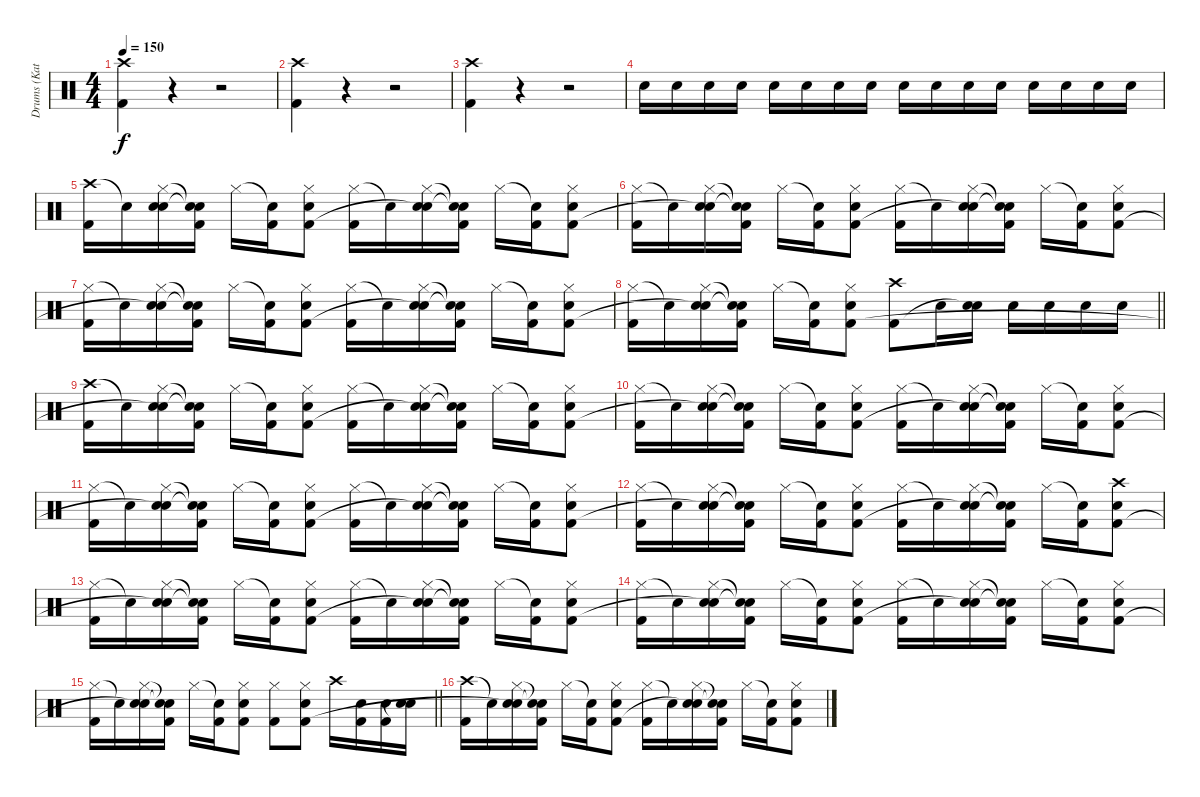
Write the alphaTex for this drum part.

\track ("Drums (Katsuji)" "Drums (Kat") {instrument percussion}
\staff {score}
\articulation defaults
\ts (4 4)
\tempo 150
\clef neutral
\ks c
("Crash high (hit)" "Kick (hit) 2").4{dy f} r.4 r.2 |
("Crash high (hit)" "Kick (hit) 2").4 r.4 r.2 |
("Crash high (hit)" "Kick (hit) 2").4 r.4 r.2 |
"Snare (hit) 2".16 "Snare (hit) 2".16 "Snare (hit) 2".16 "Snare (hit) 2".16 "Snare (hit) 2".16 "Snare (hit) 2".16 "Snare (hit) 2".16 "Snare (hit) 2".16 "Snare (hit) 2".16 "Snare (hit) 2".16 "Snare (hit) 2".16 "Snare (hit) 2".16 "Snare (hit) 2".16 "Snare (hit) 2".16 "Snare (hit) 2".16 "Snare (hit) 2".16 |
("Crash high (hit)" "Kick (hit) 2").16 "Snare (hit)"{t}.16 ("Hi-Hat (closed)" "Snare (hit) 2" "Snare (hit)").16 ("Snare (hit)"{t} "Snare (hit)"{t} "Kick (hit) 2").16 "Hi-Hat (closed)".16 ("Snare (hit)"{t} "Kick (hit) 2").16 ("Hi-Hat (closed)" "Snare (hit) 2" "Kick (hit) 2").8 ("Hi-Hat (closed)" "Kick (hit) 2").16 "Snare (hit)"{t}.16 ("Hi-Hat (closed)" "Snare (hit) 2" "Snare (hit)"{t}).16 ("Snare (hit)"{t} "Snare (hit)"{t} "Kick (hit) 2").16 "Hi-Hat (closed)".16 ("Snare (hit)"{t} "Kick (hit) 2").16 ("Hi-Hat (closed)" "Snare (hit) 2" "Kick (hit) 2").8 |
("Hi-Hat (closed)" "Kick (hit) 2").16 "Snare (hit)"{t}.16 ("Hi-Hat (closed)" "Snare (hit) 2" "Snare (hit)"{t}).16 ("Snare (hit)"{t} "Snare (hit)"{t} "Kick (hit) 2").16 "Hi-Hat (closed)".16 ("Snare (hit)"{t} "Kick (hit) 2").16 ("Hi-Hat (closed)" "Snare (hit) 2" "Kick (hit) 2").8 ("Hi-Hat (closed)" "Kick (hit) 2").16 "Snare (hit)"{t}.16 ("Hi-Hat (closed)" "Snare (hit) 2" "Snare (hit)"{t}).16 ("Snare (hit)"{t} "Snare (hit)"{t} "Kick (hit) 2").16 "Hi-Hat (closed)".16 ("Snare (hit)"{t} "Kick (hit) 2").16 ("Hi-Hat (closed)" "Snare (hit) 2" "Kick (hit) 2").8 |
("Hi-Hat (closed)" "Kick (hit) 2").16 "Snare (hit)"{t}.16 ("Hi-Hat (closed)" "Snare (hit) 2" "Snare (hit)"{t}).16 ("Snare (hit)"{t} "Snare (hit)"{t} "Kick (hit) 2").16 "Hi-Hat (closed)".16 ("Snare (hit)"{t} "Kick (hit) 2").16 ("Hi-Hat (closed)" "Snare (hit) 2" "Kick (hit) 2").8 ("Hi-Hat (closed)" "Kick (hit) 2").16 "Snare (hit)"{t}.16 ("Hi-Hat (closed)" "Snare (hit) 2" "Snare (hit)"{t}).16 ("Snare (hit)"{t} "Snare (hit) 2"{t} "Kick (hit) 2").16 "Hi-Hat (closed)".16 ("Snare (hit)"{t} "Kick (hit) 2").16 ("Hi-Hat (closed)" "Snare (hit) 2" "Kick (hit) 2").8 |
\barLineRight lightlight
("Hi-Hat (closed)" "Kick (hit) 2").16 "Snare (hit)"{t}.16 ("Hi-Hat (closed)" "Snare (hit) 2" "Snare (hit)"{t}).16 ("Snare (hit)"{t} "Snare (hit)"{t} "Kick (hit) 2").16 "Hi-Hat (closed)".16 ("Snare (hit)"{t} "Kick (hit) 2").16 ("Hi-Hat (closed)" "Snare (hit) 2" "Kick (hit) 2").8 ("Crash high (hit)" "Kick (hit) 2").8 "Snare (hit) 2".16 ("Snare (hit) 2" "Snare (hit)"{t}).16 "Snare (hit) 2".16 "Snare (hit) 2".16 "Snare (hit) 2".16 "Snare (hit) 2".16 |
("Crash high (hit)" "Kick (hit) 2").16 "Snare (hit)"{t}.16 ("Hi-Hat (closed)" "Snare (hit) 2" "Snare (hit)"{t}).16 ("Snare (hit)"{t} "Snare (hit)"{t} "Kick (hit) 2").16 "Hi-Hat (closed)".16 ("Snare (hit)"{t} "Kick (hit) 2").16 ("Hi-Hat (closed)" "Snare (hit) 2" "Kick (hit) 2").8 ("Hi-Hat (closed)" "Kick (hit) 2").16 "Snare (hit)"{t}.16 ("Hi-Hat (closed)" "Snare (hit) 2" "Snare (hit)"{t}).16 ("Snare (hit)"{t} "Snare (hit)"{t} "Kick (hit) 2").16 "Hi-Hat (closed)".16 ("Snare (hit)"{t} "Kick (hit) 2").16 ("Hi-Hat (closed)" "Snare (hit) 2" "Kick (hit) 2").8 |
("Hi-Hat (closed)" "Kick (hit) 2").16 "Snare (hit)"{t}.16 ("Hi-Hat (closed)" "Snare (hit) 2" "Snare (hit)"{t}).16 ("Snare (hit)"{t} "Snare (hit)"{t} "Kick (hit) 2").16 "Hi-Hat (closed)".16 ("Snare (hit)"{t} "Kick (hit) 2").16 ("Hi-Hat (closed)" "Snare (hit) 2" "Kick (hit) 2").8 ("Hi-Hat (closed)" "Kick (hit) 2").16 "Snare (hit)"{t}.16 ("Hi-Hat (closed)" "Snare (hit) 2" "Snare (hit)"{t}).16 ("Snare (hit)"{t} "Snare (hit)"{t} "Kick (hit) 2").16 "Hi-Hat (closed)".16 ("Snare (hit)"{t} "Kick (hit) 2").16 ("Hi-Hat (closed)" "Snare (hit) 2" "Kick (hit) 2").8 |
("Hi-Hat (closed)" "Kick (hit) 2").16 "Snare (hit)"{t}.16 ("Hi-Hat (closed)" "Snare (hit) 2" "Snare (hit)"{t}).16 ("Snare (hit)"{t} "Snare (hit)"{t} "Kick (hit) 2").16 "Hi-Hat (closed)".16 ("Snare (hit)"{t} "Kick (hit) 2").16 ("Hi-Hat (closed)" "Snare (hit) 2" "Kick (hit) 2").8 ("Hi-Hat (closed)" "Kick (hit) 2").16 "Snare (hit)"{t}.16 ("Hi-Hat (closed)" "Snare (hit) 2" "Snare (hit)"{t}).16 ("Snare (hit)"{t} "Snare (hit)"{t} "Kick (hit) 2").16 "Hi-Hat (closed)".16 ("Snare (hit)"{t} "Kick (hit) 2").16 ("Hi-Hat (closed)" "Snare (hit) 2" "Kick (hit) 2").8 |
("Hi-Hat (closed)" "Kick (hit) 2").16 "Snare (hit)"{t}.16 ("Hi-Hat (closed)" "Snare (hit) 2" "Snare (hit)"{t}).16 ("Snare (hit)"{t} "Snare (hit)"{t} "Kick (hit) 2").16 "Hi-Hat (closed)".16 ("Snare (hit)"{t} "Kick (hit) 2").16 ("Hi-Hat (closed)" "Snare (hit) 2" "Kick (hit) 2").8 ("Hi-Hat (closed)" "Kick (hit) 2").16 "Snare (hit)"{t}.16 ("Hi-Hat (closed)" "Snare (hit) 2" "Snare (hit)"{t}).16 ("Snare (hit)"{t} "Snare (hit)"{t} "Kick (hit) 2").16 "Hi-Hat (closed)".16 ("Snare (hit)"{t} "Kick (hit) 2").16 ("Crash high (hit)" "Snare (hit) 2" "Kick (hit) 2").8 |
("Hi-Hat (closed)" "Kick (hit) 2").16 "Snare (hit)"{t}.16 ("Hi-Hat (closed)" "Snare (hit) 2" "Snare (hit)"{t}).16 ("Snare (hit)"{t} "Snare (hit)"{t} "Kick (hit) 2").16 "Hi-Hat (closed)".16 ("Snare (hit)"{t} "Kick (hit) 2").16 ("Hi-Hat (closed)" "Snare (hit) 2" "Kick (hit) 2").8 ("Hi-Hat (closed)" "Kick (hit) 2").16 "Snare (hit)"{t}.16 ("Hi-Hat (closed)" "Snare (hit) 2" "Snare (hit)"{t}).16 ("Snare (hit)"{t} "Snare (hit)"{t} "Kick (hit) 2").16 "Hi-Hat (closed)".16 ("Snare (hit)"{t} "Kick (hit) 2").16 ("Hi-Hat (closed)" "Snare (hit) 2" "Kick (hit) 2").8 |
("Hi-Hat (closed)" "Kick (hit) 2").16 "Snare (hit)"{t}.16 ("Hi-Hat (closed)" "Snare (hit) 2" "Snare (hit)"{t}).16 ("Snare (hit)"{t} "Snare (hit)"{t} "Kick (hit) 2").16 "Hi-Hat (closed)".16 ("Snare (hit)"{t} "Kick (hit) 2").16 ("Hi-Hat (closed)" "Snare (hit) 2" "Kick (hit) 2").8 ("Hi-Hat (closed)" "Kick (hit) 2").16 "Snare (hit)"{t}.16 ("Hi-Hat (closed)" "Snare (hit) 2" "Snare (hit)"{t}).16 ("Snare (hit)"{t} "Snare (hit)"{t} "Kick (hit) 2").16 "Hi-Hat (closed)".16 ("Snare (hit)"{t} "Kick (hit) 2").16 ("Hi-Hat (closed)" "Snare (hit) 2" "Kick (hit) 2").8 |
\barLineRight lightlight
("Hi-Hat (closed)" "Kick (hit) 2").16 "Snare (hit)"{t}.16 ("Hi-Hat (closed)" "Snare (hit) 2" "Snare (hit)"{t}).16 ("Snare (hit)"{t} "Snare (hit)"{t} "Kick (hit) 2").16 "Hi-Hat (closed)".16 ("Snare (hit)"{t} "Kick (hit) 2").16 ("Hi-Hat (closed)" "Snare (hit) 2" "Kick (hit) 2").8 ("Hi-Hat (closed)" "Kick (hit) 2").8 ("Hi-Hat (closed)" "Snare (hit) 2" "Kick (hit) 2").8 "Crash high (hit)".16 ("Snare (hit) 2" "Kick (hit) 2").16 ("Snare (hit) 2" "Kick (hit) 2").16 ("Snare (hit) 2" "Snare (hit)"{t}).16 |
("Crash high (hit)" "Kick (hit) 2").16 "Snare (hit)"{t}.16 ("Hi-Hat (closed)" "Snare (hit) 2" "Snare (hit)"{t}).16 ("Snare (hit)"{t} "Snare (hit)"{t} "Kick (hit) 2").16 "Hi-Hat (closed)".16 ("Snare (hit)"{t} "Kick (hit) 2").16 ("Hi-Hat (closed)" "Snare (hit) 2" "Kick (hit) 2").8 ("Hi-Hat (closed)" "Kick (hit) 2").16 "Snare (hit)"{t}.16 ("Hi-Hat (closed)" "Snare (hit) 2" "Snare (hit)"{t}).16 ("Snare (hit)"{t} "Snare (hit)"{t} "Kick (hit) 2").16 "Hi-Hat (closed)".16 ("Snare (hit)"{t} "Kick (hit) 2").16 ("Hi-Hat (closed)" "Snare (hit) 2" "Kick (hit) 2").8
